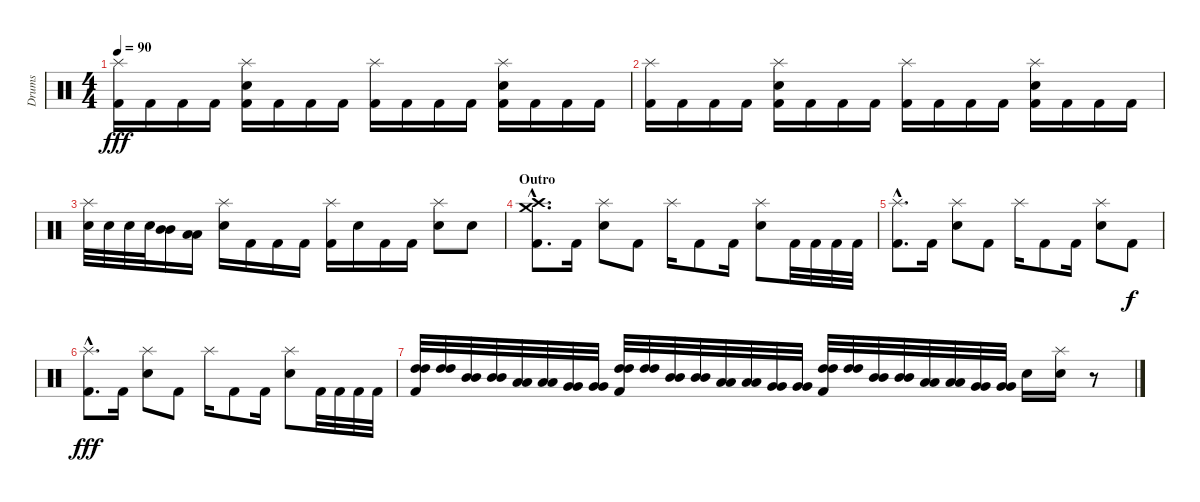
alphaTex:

\track ("Drums" "Drums") {instrument percussion}
\staff {score}
\articulation defaults
\ts (4 4)
\tempo 90
\clef neutral
\ks c
("Splash (hit)" "Kick (hit) 2").16{dy fff} "Kick (hit) 2".16 "Kick (hit) 2".16 "Kick (hit) 2".16 ("Splash (hit)" "Electric Snare (hit)" "Kick (hit) 2").16 "Kick (hit) 2".16 "Kick (hit) 2".16 "Kick (hit) 2".16 ("Splash (hit)" "Kick (hit) 2").16 "Kick (hit) 2".16 "Kick (hit) 2".16 "Kick (hit) 2".16 ("Splash (hit)" "Electric Snare (hit)" "Kick (hit) 2").16 "Kick (hit) 2".16 "Kick (hit) 2".16 "Kick (hit) 2".16 |
("Splash (hit)" "Kick (hit) 2").16 "Kick (hit) 2".16 "Kick (hit) 2".16 "Kick (hit) 2".16 ("Splash (hit)" "Electric Snare (hit)" "Kick (hit) 2").16 "Kick (hit) 2".16 "Kick (hit) 2".16 "Kick (hit) 2".16 ("Splash (hit)" "Kick (hit) 2").16 "Kick (hit) 2".16 "Kick (hit) 2".16 "Kick (hit) 2".16 ("Splash (hit)" "Electric Snare (hit)" "Kick (hit) 2").16 "Kick (hit) 2".16 "Kick (hit) 2".16 "Kick (hit) 2".16 |
("Splash (hit)" "Electric Snare (hit)").32 "Electric Snare (hit)".32 "Electric Snare (hit)".32 "Electric Snare (hit)".32 ("Mid Tom (hit)" "Mid Tom (hit)").16 ("Low Tom (hit)" "Low Tom (hit)").16 ("Splash (hit)" "Electric Snare (hit)").16 "Kick (hit) 2".16 "Kick (hit) 2".16 "Kick (hit) 2".16 ("Splash (hit)" "Kick (hit) 2").16 "Electric Snare (hit)".16 "Kick (hit) 2".16 "Kick (hit) 2".16 ("Splash (hit)" "Electric Snare (hit)").8 "Electric Snare (hit)".8 |
\section ("" "Outro")
("Crash high (hit)"{hac} "Crash medium (hit)"{hac} "Kick (hit) 2"{hac}).8{d} "Kick (hit) 2".16 ("Splash (hit)" "Electric Snare (hit)").8 "Kick (hit) 2".8 "Splash (hit)".16 "Kick (hit) 2".8 "Kick (hit) 2".16 ("Splash (hit)" "Electric Snare (hit)").8 "Kick (hit) 2".32 "Kick (hit) 2".32 "Kick (hit) 2".32 "Kick (hit) 2".32 |
("Splash (hit)"{hac} "Kick (hit) 2"{hac}).8{d} "Kick (hit) 2".16 ("Splash (hit)" "Electric Snare (hit)").8 "Kick (hit) 2".8 "Splash (hit)".16 "Kick (hit) 2".8 "Kick (hit) 2".16 ("Splash (hit)" "Electric Snare (hit)").8 "Kick (hit) 2".8{dy f} |
("Splash (hit)"{hac} "Kick (hit) 2"{hac}).8{d dy fff} "Kick (hit) 2".16 ("Splash (hit)" "Electric Snare (hit)").8 "Kick (hit) 2".8 "Splash (hit)".16 "Kick (hit) 2".8 "Kick (hit) 2".16 ("Splash (hit)" "Electric Snare (hit)").8 "Kick (hit) 2".32 "Kick (hit) 2".32 "Kick (hit) 2".32 "Kick (hit) 2".32 |
("High Tom (hit)" "High Tom (hit)" "Kick (hit) 2").32 ("High Tom (hit)" "High Tom (hit)").32 ("Mid Tom (hit)" "Mid Tom (hit)").32 ("Mid Tom (hit)" "Mid Tom (hit)").32 ("Low Tom (hit)" "Low Tom (hit)").32 ("Low Tom (hit)" "Low Tom (hit)").32 ("Very Low Tom (hit)" "Very Low Tom (hit)").32 ("Very Low Tom (hit)" "Very Low Tom (hit)").32 ("High Tom (hit)" "High Tom (hit)" "Kick (hit) 2").32 ("High Tom (hit)" "High Tom (hit)").32 ("Mid Tom (hit)" "Mid Tom (hit)").32 ("Mid Tom (hit)" "Mid Tom (hit)").32 ("Low Tom (hit)" "Low Tom (hit)").32 ("Low Tom (hit)" "Low Tom (hit)").32 ("Very Low Tom (hit)" "Very Low Tom (hit)").32 ("Very Low Tom (hit)" "Very Low Tom (hit)").32 ("High Tom (hit)" "High Tom (hit)" "Kick (hit) 2").32 ("High Tom (hit)" "High Tom (hit)").32 ("Mid Tom (hit)" "Mid Tom (hit)").32 ("Mid Tom (hit)" "Mid Tom (hit)").32 ("Low Tom (hit)" "Low Tom (hit)").32 ("Low Tom (hit)" "Low Tom (hit)").32 ("Very Low Tom (hit)" "Very Low Tom (hit)").32 ("Very Low Tom (hit)" "Very Low Tom (hit)").32 "Electric Snare (hit)".16 ("Splash (hit)" "Electric Snare (hit)").16 r.8
